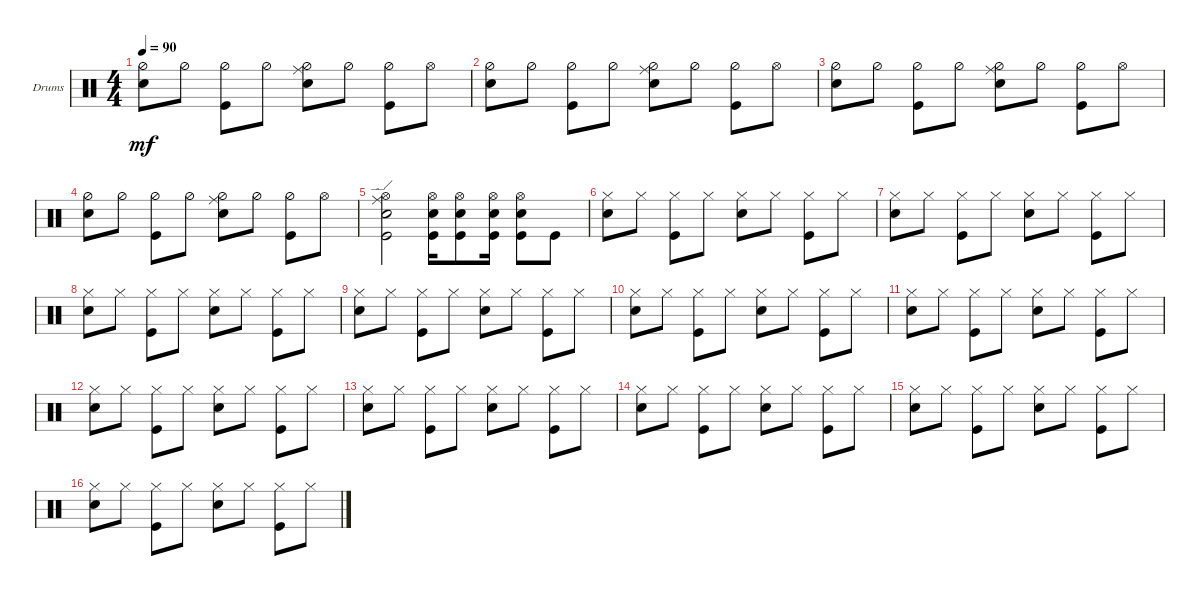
\defaultSystemsLayout 4
\bracketExtendMode groupsimilarinstruments
\firstSystemTrackNameOrientation horizontal
\otherSystemsTrackNameOrientation horizontal
\track ("Drumkit" "Drums") {instrument percussion}
\staff {score}
\articulation defaults
\ts (4 4)
\tempo 90
\clef neutral
\ks c
("Snare (hit) 2" "Hi-Hat (half)").8{dy mf} "Hi-Hat (half)".8 ("Kick (hit)" "Hi-Hat (half)").8 "Hi-Hat (half)".8 ("Snare (hit) 2" "Hi-Hat (half)" "Ride (middle)").8 "Hi-Hat (half)".8 ("Kick (hit)" "Hi-Hat (half)").8 "Hi-Hat (open)".8 |
("Snare (hit) 2" "Hi-Hat (half)").8 "Hi-Hat (half)".8 ("Kick (hit)" "Hi-Hat (half)").8 "Hi-Hat (half)".8 ("Snare (hit) 2" "Hi-Hat (half)" "Ride (middle)").8 "Hi-Hat (half)".8 ("Kick (hit)" "Hi-Hat (half)").8 "Hi-Hat (open)".8 |
("Snare (hit) 2" "Hi-Hat (half)").8 "Hi-Hat (half)".8 ("Kick (hit)" "Hi-Hat (half)").8 "Hi-Hat (half)".8 ("Snare (hit) 2" "Hi-Hat (half)" "Ride (middle)").8 "Hi-Hat (half)".8 ("Kick (hit)" "Hi-Hat (half)").8 "Hi-Hat (open)".8 |
("Snare (hit) 2" "Hi-Hat (half)").8 "Hi-Hat (half)".8 ("Kick (hit)" "Hi-Hat (half)").8 "Hi-Hat (half)".8 ("Snare (hit) 2" "Hi-Hat (half)" "Ride (middle)").8 "Hi-Hat (half)".8 ("Kick (hit)" "Hi-Hat (half)").8 "Hi-Hat (open)".8 |
("Kick (hit)" "Snare (hit) 2" "Ride (edge)" "Hi-Hat (open)").2 ("Kick (hit)" "Snare (hit) 2" "Hi-Hat (open)").16 ("Kick (hit)" "Snare (hit) 2" "Hi-Hat (open)").8 ("Kick (hit)" "Snare (hit) 2" "Hi-Hat (open)").16 ("Kick (hit)" "Snare (hit) 2" "Hi-Hat (open)").8 "Kick (hit)".8 |
("Snare (hit) 2" "Hi-Hat (closed)").8 "Hi-Hat (closed)".8 ("Kick (hit)" "Hi-Hat (closed)").8 "Hi-Hat (closed)".8 ("Snare (hit) 2" "Hi-Hat (closed)").8 "Hi-Hat (closed)".8 ("Kick (hit)" "Hi-Hat (closed)").8 "Hi-Hat (closed)".8 |
("Snare (hit) 2" "Hi-Hat (closed)").8 "Hi-Hat (closed)".8 ("Kick (hit)" "Hi-Hat (closed)").8 "Hi-Hat (closed)".8 ("Snare (hit) 2" "Hi-Hat (closed)").8 "Hi-Hat (closed)".8 ("Kick (hit)" "Hi-Hat (closed)").8 "Hi-Hat (closed)".8 |
("Snare (hit) 2" "Hi-Hat (closed)").8 "Hi-Hat (closed)".8 ("Kick (hit)" "Hi-Hat (closed)").8 "Hi-Hat (closed)".8 ("Snare (hit) 2" "Hi-Hat (closed)").8 "Hi-Hat (closed)".8 ("Kick (hit)" "Hi-Hat (closed)").8 "Hi-Hat (closed)".8 |
("Snare (hit) 2" "Hi-Hat (closed)").8 "Hi-Hat (closed)".8 ("Kick (hit)" "Hi-Hat (closed)").8 "Hi-Hat (closed)".8 ("Snare (hit) 2" "Hi-Hat (closed)").8 "Hi-Hat (closed)".8 ("Kick (hit)" "Hi-Hat (closed)").8 "Hi-Hat (closed)".8 |
("Snare (hit) 2" "Hi-Hat (closed)").8 "Hi-Hat (closed)".8 ("Kick (hit)" "Hi-Hat (closed)").8 "Hi-Hat (closed)".8 ("Snare (hit) 2" "Hi-Hat (closed)").8 "Hi-Hat (closed)".8 ("Kick (hit)" "Hi-Hat (closed)").8 "Hi-Hat (closed)".8 |
("Snare (hit) 2" "Hi-Hat (closed)").8 "Hi-Hat (closed)".8 ("Kick (hit)" "Hi-Hat (closed)").8 "Hi-Hat (closed)".8 ("Snare (hit) 2" "Hi-Hat (closed)").8 "Hi-Hat (closed)".8 ("Kick (hit)" "Hi-Hat (closed)").8 "Hi-Hat (closed)".8 |
("Snare (hit) 2" "Hi-Hat (closed)").8 "Hi-Hat (closed)".8 ("Kick (hit)" "Hi-Hat (closed)").8 "Hi-Hat (closed)".8 ("Snare (hit) 2" "Hi-Hat (closed)").8 "Hi-Hat (closed)".8 ("Kick (hit)" "Hi-Hat (closed)").8 "Hi-Hat (closed)".8 |
("Snare (hit) 2" "Hi-Hat (closed)").8 "Hi-Hat (closed)".8 ("Kick (hit)" "Hi-Hat (closed)").8 "Hi-Hat (closed)".8 ("Snare (hit) 2" "Hi-Hat (closed)").8 "Hi-Hat (closed)".8 ("Kick (hit)" "Hi-Hat (closed)").8 "Hi-Hat (closed)".8 |
("Snare (hit) 2" "Hi-Hat (closed)").8 "Hi-Hat (closed)".8 ("Kick (hit)" "Hi-Hat (closed)").8 "Hi-Hat (closed)".8 ("Snare (hit) 2" "Hi-Hat (closed)").8 "Hi-Hat (closed)".8 ("Kick (hit)" "Hi-Hat (closed)").8 "Hi-Hat (closed)".8 |
("Snare (hit) 2" "Hi-Hat (closed)").8 "Hi-Hat (closed)".8 ("Kick (hit)" "Hi-Hat (closed)").8 "Hi-Hat (closed)".8 ("Snare (hit) 2" "Hi-Hat (closed)").8 "Hi-Hat (closed)".8 ("Kick (hit)" "Hi-Hat (closed)").8 "Hi-Hat (closed)".8 |
("Snare (hit) 2" "Hi-Hat (closed)").8 "Hi-Hat (closed)".8 ("Kick (hit)" "Hi-Hat (closed)").8 "Hi-Hat (closed)".8 ("Snare (hit) 2" "Hi-Hat (closed)").8 "Hi-Hat (closed)".8 ("Kick (hit)" "Hi-Hat (closed)").8 "Hi-Hat (closed)".8
